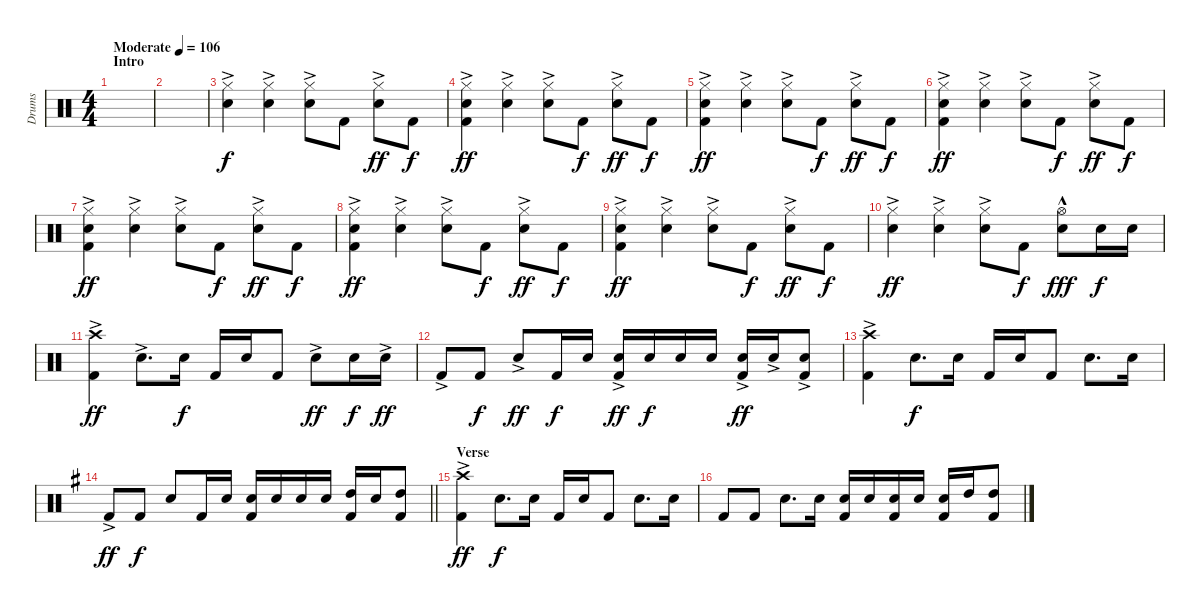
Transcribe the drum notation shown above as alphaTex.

\track ("Drums" "Drums") {instrument percussion}
\staff {score}
\articulation defaults
\ts (4 4)
\section ("" "Intro")
\tempo (106 "Moderate")
\clef neutral
\ks c
|
|
("Hi-Hat (closed)"{ac} "Snare (hit) 2").4 ("Hi-Hat (closed)"{ac} "Snare (hit) 2").4 ("Hi-Hat (closed)"{ac} "Snare (hit) 2").8 "Kick (hit) 2".8{dy f} ("Hi-Hat (closed)"{ac} "Snare (hit) 2").8{dy ff} "Kick (hit) 2".8{dy f} |
("Hi-Hat (closed)"{ac} "Snare (hit) 2" "Kick (hit) 2"{ac}).4{dy ff} ("Hi-Hat (closed)"{ac} "Snare (hit) 2").4 ("Hi-Hat (closed)"{ac} "Snare (hit) 2").8 "Kick (hit) 2".8{dy f} ("Hi-Hat (closed)"{ac} "Snare (hit) 2").8{dy ff} "Kick (hit) 2".8{dy f} |
("Hi-Hat (closed)"{ac} "Snare (hit) 2" "Kick (hit) 2"{ac}).4{dy ff} ("Hi-Hat (closed)"{ac} "Snare (hit) 2").4 ("Hi-Hat (closed)"{ac} "Snare (hit) 2").8 "Kick (hit) 2".8{dy f} ("Hi-Hat (closed)"{ac} "Snare (hit) 2").8{dy ff} "Kick (hit) 2".8{dy f} |
("Hi-Hat (closed)"{ac} "Snare (hit) 2" "Kick (hit) 2"{ac}).4{dy ff} ("Hi-Hat (closed)"{ac} "Snare (hit) 2").4 ("Hi-Hat (closed)"{ac} "Snare (hit) 2").8 "Kick (hit) 2".8{dy f} ("Hi-Hat (closed)"{ac} "Snare (hit) 2").8{dy ff} "Kick (hit) 2".8{dy f} |
("Hi-Hat (closed)"{ac} "Snare (hit) 2" "Kick (hit) 2"{ac}).4{dy ff} ("Hi-Hat (closed)"{ac} "Snare (hit) 2").4 ("Hi-Hat (closed)"{ac} "Snare (hit) 2").8 "Kick (hit) 2".8{dy f} ("Hi-Hat (closed)"{ac} "Snare (hit) 2").8{dy ff} "Kick (hit) 2".8{dy f} |
("Hi-Hat (closed)"{ac} "Snare (hit) 2" "Kick (hit) 2"{ac}).4{dy ff} ("Hi-Hat (closed)"{ac} "Snare (hit) 2").4 ("Hi-Hat (closed)"{ac} "Snare (hit) 2").8 "Kick (hit) 2".8{dy f} ("Hi-Hat (closed)"{ac} "Snare (hit) 2").8{dy ff} "Kick (hit) 2".8{dy f} |
("Hi-Hat (closed)"{ac} "Snare (hit) 2" "Kick (hit) 2"{ac}).4{dy ff} ("Hi-Hat (closed)"{ac} "Snare (hit) 2").4 ("Hi-Hat (closed)"{ac} "Snare (hit) 2").8 "Kick (hit) 2".8{dy f} ("Hi-Hat (closed)"{ac} "Snare (hit) 2").8{dy ff} "Kick (hit) 2".8{dy f} |
("Hi-Hat (closed)"{ac} "Snare (hit) 2").4{dy ff} ("Hi-Hat (closed)"{ac} "Snare (hit) 2").4 ("Hi-Hat (closed)"{ac} "Snare (hit) 2").8 "Kick (hit) 2".8{dy f} ("Hi-Hat (open)"{hac} "Snare (hit) 2").8{dy fff} "Snare (hit) 2".16{dy f} "Snare (hit) 2".16 |
("Crash high (hit)" "Kick (hit) 2"{ac}).4{dy ff} "Snare (hit) 2"{ac}.8{d} "Snare (hit) 2".16{dy f} "Kick (hit) 2".16 "Snare (hit) 2".16 "Kick (hit) 2".8 "Snare (hit) 2"{ac}.8{dy ff} "Snare (hit) 2".16{dy f} "Snare (hit) 2"{ac}.16{dy ff} |
"Kick (hit) 2"{ac}.8 "Kick (hit) 2".8{dy f} "Snare (hit) 2"{ac}.8{dy ff} "Kick (hit) 2".16{dy f} "Snare (hit) 2".16 ("Snare (hit) 2"{ac} "Kick (hit) 2").16{dy ff} "Snare (hit) 2".16{dy f} "Snare (hit) 2".16 "Snare (hit) 2".16 ("Snare (hit) 2"{ac} "Kick (hit) 2").16{dy ff} "Snare (hit) 2"{ac}.16 ("Snare (hit) 2"{ac} "Kick (hit) 2").8 |
("Crash high (hit)" "Kick (hit) 2"{ac}).4 "Snare (hit) 2".8{d dy f} "Snare (hit) 2".16 "Kick (hit) 2".16 "Snare (hit) 2".16 "Kick (hit) 2".8 "Snare (hit) 2".8{d} "Snare (hit) 2".16 |
\barLineRight lightlight
\ks g "Kick (hit) 2"{ac}.8{dy ff} "Kick (hit) 2".8{dy f} "Snare (hit) 2".8 "Kick (hit) 2".16 "Snare (hit) 2".16
("Snare (hit) 2" "Kick (hit) 2").16 "Snare (hit) 2".16 "Snare (hit) 2".16 "Snare (hit) 2".16 ("High Tom (hit)" "Kick (hit) 2").16 "Snare (hit) 2".16 ("High Tom (hit)" "Kick (hit) 2").8 |
\section ("" "Verse")
("Crash high (hit)" "Kick (hit) 2"{ac}).4{dy ff} "Snare (hit) 2".8{d dy f} "Snare (hit) 2".16 "Kick (hit) 2".16 "Snare (hit) 2".16 "Kick (hit) 2".8 "Snare (hit) 2".8{d} "Snare (hit) 2".16 |
"Kick (hit) 2".8 "Kick (hit) 2".8 "Snare (hit) 2".8{d} "Snare (hit) 2".16 ("Snare (hit) 2" "Kick (hit) 2").16 "Snare (hit) 2".16 ("Snare (hit) 2" "Kick (hit) 2").16 "Snare (hit) 2".16 ("Snare (hit) 2" "Kick (hit) 2").16 "High Tom (hit)".16 ("High Tom (hit)" "Kick (hit) 2").8
